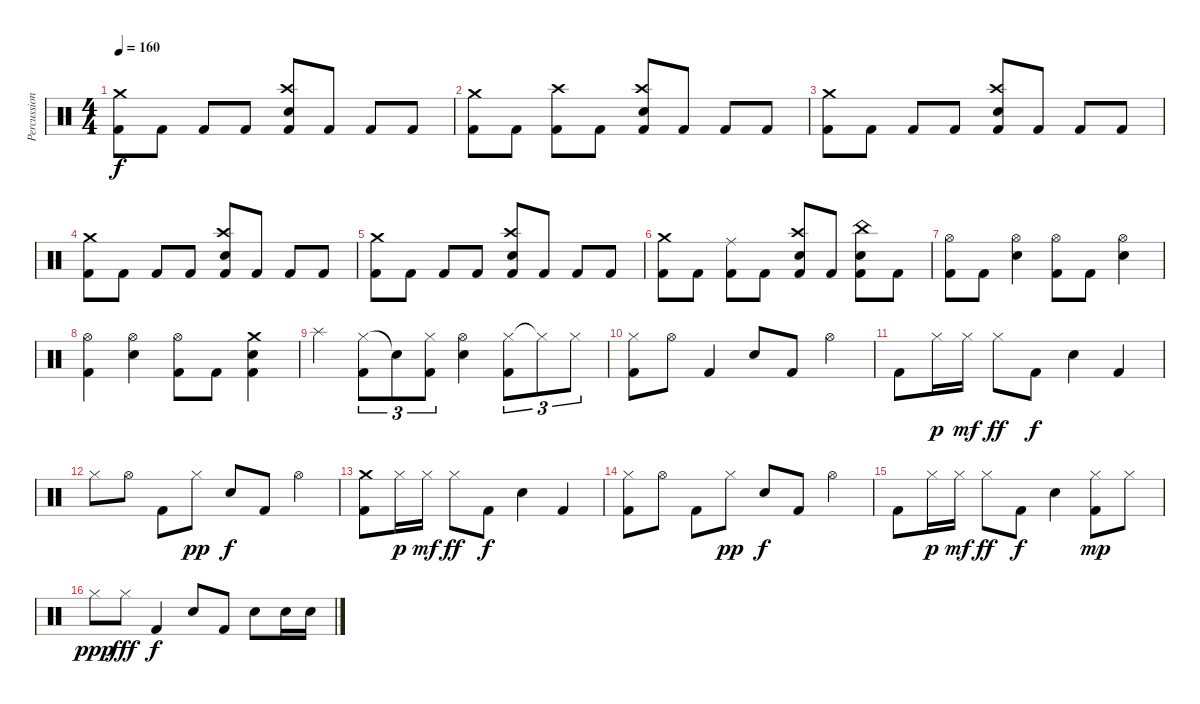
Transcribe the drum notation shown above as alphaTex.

\track ("Percussion" "Percussion") {instrument percussion}
\staff {score}
\articulation defaults
\ts (4 4)
\tempo 160
\clef neutral
\ks c
("Crash medium (hit)" "Kick (hit) 2").8{dy f} "Kick (hit) 2".8 "Kick (hit) 2".8 "Kick (hit) 2".8 ("Crash high (hit)" "Electric Snare (hit)" "Kick (hit) 2").8 "Kick (hit) 2".8 "Kick (hit) 2".8 "Kick (hit) 2".8 |
("Crash medium (hit)" "Kick (hit) 2").8 "Kick (hit) 2".8 ("Crash high (hit)" "Kick (hit) 2").8 "Kick (hit) 2".8 ("Crash high (hit)" "Electric Snare (hit)" "Kick (hit) 2").8 "Kick (hit) 2".8 "Kick (hit) 2".8 "Kick (hit) 2".8 |
("Crash medium (hit)" "Kick (hit) 2").8 "Kick (hit) 2".8 "Kick (hit) 2".8 "Kick (hit) 2".8 ("Crash high (hit)" "Electric Snare (hit)" "Kick (hit) 2").8 "Kick (hit) 2".8 "Kick (hit) 2".8 "Kick (hit) 2".8 |
("Crash medium (hit)" "Kick (hit) 2").8 "Kick (hit) 2".8 "Kick (hit) 2".8 "Kick (hit) 2".8 ("Crash high (hit)" "Electric Snare (hit)" "Kick (hit) 2").8 "Kick (hit) 2".8 "Kick (hit) 2".8 "Kick (hit) 2".8 |
("Crash medium (hit)" "Kick (hit) 2").8 "Kick (hit) 2".8 "Kick (hit) 2".8 "Kick (hit) 2".8 ("Crash high (hit)" "Electric Snare (hit)" "Kick (hit) 2").8 "Kick (hit) 2".8 "Kick (hit) 2".8 "Kick (hit) 2".8 |
("Crash medium (hit)" "Kick (hit) 2").8 "Kick (hit) 2".8 ("Ride (middle)" "Kick (hit) 2").8 "Kick (hit) 2".8 ("Crash high (hit)" "Electric Snare (hit)" "Kick (hit) 2").8 "Kick (hit) 2".8 ("China (hit)" "Electric Snare (hit)" "Kick (hit) 2").8 "Kick (hit) 2".8 |
("Hi-Hat (open)" "Kick (hit) 2").8 "Kick (hit) 2".8 ("Hi-Hat (open)" "Electric Snare (hit)").4 ("Hi-Hat (open)" "Kick (hit) 2").8 "Kick (hit) 2".8 ("Hi-Hat (open)" "Electric Snare (hit)").4 |
("Hi-Hat (open)" "Kick (hit) 2").4 ("Hi-Hat (open)" "Electric Snare (hit)").4 ("Hi-Hat (open)" "Kick (hit) 2").8 "Kick (hit) 2".8 ("Crash medium (hit)" "Electric Snare (hit)" "Kick (hit) 2").4 |
"Splash (hit)".4 ("Hi-Hat (closed)" "Kick (hit) 2").8{tu (3 2)} "Snare (hit)"{t}.8{tu (3 2)} ("Hi-Hat (closed)" "Kick (hit) 2").8{tu (3 2)} ("Hi-Hat (open)" "Snare (hit) 2").4 ("Hi-Hat (closed)" "Kick (hit) 2").8{tu (3 2)} "Hi-Hat (closed)"{t}.8{tu (3 2)} "Hi-Hat (closed)".8{tu (3 2)} |
("Hi-Hat (closed)" "Kick (hit) 2").8 "Hi-Hat (open)".8 "Kick (hit) 2".4 "Snare (hit) 2".8 "Kick (hit) 2".8 "Hi-Hat (open)".4 |
"Kick (hit) 2".8 "Hi-Hat (closed)".16{dy p} "Hi-Hat (closed)".16{dy mf} "Hi-Hat (closed)".8{dy ff} "Kick (hit) 2".8{dy f} "Snare (hit) 2".4 "Kick (hit) 2".4 |
"Hi-Hat (closed)".8 "Hi-Hat (open)".8 "Kick (hit) 2".8 "Hi-Hat (closed)".8{dy pp} "Snare (hit) 2".8{dy f} "Kick (hit) 2".8 "Hi-Hat (open)".4 |
("Crash medium (hit)" "Kick (hit) 2").8 "Hi-Hat (closed)".16{dy p} "Hi-Hat (closed)".16{dy mf} "Hi-Hat (closed)".8{dy ff} "Kick (hit) 2".8{dy f} "Snare (hit) 2".4 "Kick (hit) 2".4 |
("Hi-Hat (closed)" "Kick (hit) 2").8 "Hi-Hat (open)".8 "Kick (hit) 2".8 "Hi-Hat (closed)".8{dy pp} "Snare (hit) 2".8{dy f} "Kick (hit) 2".8 "Hi-Hat (open)".4 |
"Kick (hit) 2".8 "Hi-Hat (closed)".16{dy p} "Hi-Hat (closed)".16{dy mf} "Hi-Hat (closed)".8{dy ff} "Kick (hit) 2".8{dy f} "Snare (hit) 2".4 ("Hi-Hat (closed)" "Kick (hit) 2").8{dy mp} "Hi-Hat (closed)".8 |
"Hi-Hat (closed)".8{dy ppp} "Hi-Hat (closed)".8{dy fff} "Kick (hit) 2".4{dy f} "Snare (hit) 2".8 "Kick (hit) 2".8 "Electric Snare (hit)".8 "Electric Snare (hit)".16 "Electric Snare (hit)".16
